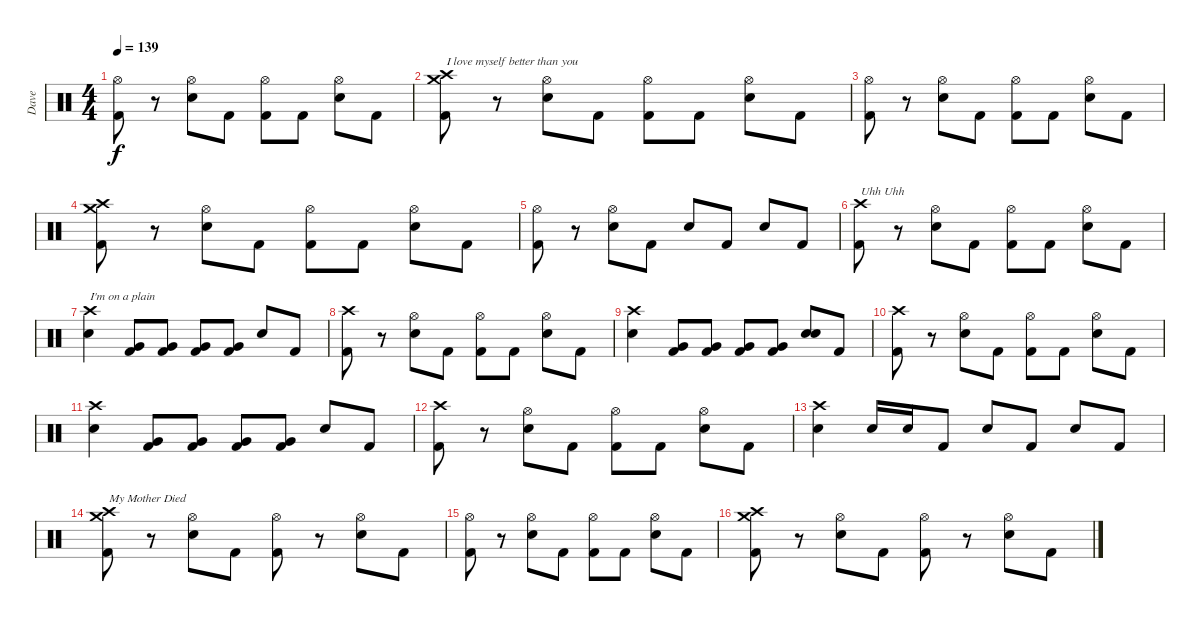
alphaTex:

\track ("Dave" "Dave") {instrument percussion}
\staff {score}
\articulation defaults
\ts (4 4)
\tempo 139
\clef neutral
\ks c
("Hi-Hat (open)" "Kick (hit) 2").8{dy f} r.8 ("Hi-Hat (open)" "Snare (hit) 2").8 "Kick (hit) 2".8 ("Hi-Hat (open)" "Kick (hit) 2").8 "Kick (hit) 2".8 ("Hi-Hat (open)" "Snare (hit) 2").8 "Kick (hit) 2".8 |
("Crash medium (hit)" "Crash high (hit)" "Kick (hit) 2").8{txt "I love myself better than you"} r.8 ("Hi-Hat (open)" "Snare (hit) 2").8 "Kick (hit) 2".8 ("Hi-Hat (open)" "Kick (hit) 2").8 "Kick (hit) 2".8 ("Hi-Hat (open)" "Snare (hit) 2").8 "Kick (hit) 2".8 |
("Hi-Hat (open)" "Kick (hit) 2").8 r.8 ("Hi-Hat (open)" "Snare (hit) 2").8 "Kick (hit) 2".8 ("Hi-Hat (open)" "Kick (hit) 2").8 "Kick (hit) 2".8 ("Hi-Hat (open)" "Snare (hit) 2").8 "Kick (hit) 2".8 |
("Crash medium (hit)" "Crash high (hit)" "Kick (hit) 2").8 r.8 ("Hi-Hat (open)" "Snare (hit) 2").8 "Kick (hit) 2".8 ("Hi-Hat (open)" "Kick (hit) 2").8 "Kick (hit) 2".8 ("Hi-Hat (open)" "Snare (hit) 2").8 "Kick (hit) 2".8 |
("Hi-Hat (open)" "Kick (hit) 2").8 r.8 ("Hi-Hat (open)" "Snare (hit) 2").8 "Kick (hit) 2".8 "Snare (hit) 2".8 "Kick (hit) 2".8 "Snare (hit) 2".8 "Kick (hit) 2".8 |
("Crash high (hit)" "Kick (hit) 2").8{txt "Uhh Uhh"} r.8 ("Hi-Hat (open)" "Snare (hit) 2").8 "Kick (hit) 2".8 ("Hi-Hat (open)" "Kick (hit) 2").8 "Kick (hit) 2".8 ("Hi-Hat (open)" "Snare (hit) 2").8 "Kick (hit) 2".8 |
("Crash high (hit)" "Snare (hit) 2").4{txt "I'm on a plain"} ("Very Low Tom (hit)" "Kick (hit) 2").8 ("Very Low Tom (hit)" "Kick (hit) 2").8 ("Very Low Tom (hit)" "Kick (hit) 2").8 ("Very Low Tom (hit)" "Kick (hit) 2").8 "Snare (hit) 2".8 "Kick (hit) 2".8 |
("Crash high (hit)" "Kick (hit) 2").8 r.8 ("Hi-Hat (open)" "Snare (hit) 2").8 "Kick (hit) 2".8 ("Hi-Hat (open)" "Kick (hit) 2").8 "Kick (hit) 2".8 ("Hi-Hat (open)" "Snare (hit) 2").8 "Kick (hit) 2".8 |
("Crash high (hit)" "Snare (hit) 2").4 ("Very Low Tom (hit)" "Kick (hit) 2").8 ("Very Low Tom (hit)" "Kick (hit) 2").8 ("Very Low Tom (hit)" "Kick (hit) 2").8 ("Very Low Tom (hit)" "Kick (hit) 2").8 ("Snare (hit) 2" "Snare (hit) 2").8 "Kick (hit) 2".8 |
("Crash high (hit)" "Kick (hit) 2").8 r.8 ("Hi-Hat (open)" "Snare (hit) 2").8 "Kick (hit) 2".8 ("Hi-Hat (open)" "Kick (hit) 2").8 "Kick (hit) 2".8 ("Hi-Hat (open)" "Snare (hit) 2").8 "Kick (hit) 2".8 |
("Crash high (hit)" "Snare (hit) 2").4 ("Very Low Tom (hit)" "Kick (hit) 2").8 ("Very Low Tom (hit)" "Kick (hit) 2").8 ("Very Low Tom (hit)" "Kick (hit) 2").8 ("Very Low Tom (hit)" "Kick (hit) 2").8 "Snare (hit) 2".8 "Kick (hit) 2".8 |
("Crash high (hit)" "Kick (hit) 2").8 r.8 ("Hi-Hat (open)" "Snare (hit) 2").8 "Kick (hit) 2".8 ("Hi-Hat (open)" "Kick (hit) 2").8 "Kick (hit) 2".8 ("Hi-Hat (open)" "Snare (hit) 2").8 "Kick (hit) 2".8 |
("Crash high (hit)" "Snare (hit) 2").4 "Snare (hit) 2".16 "Snare (hit) 2".16 "Kick (hit) 2".8 "Snare (hit) 2".8 "Kick (hit) 2".8 "Snare (hit) 2".8 "Kick (hit) 2".8 |
("Crash medium (hit)" "Crash high (hit)" "Kick (hit) 2").8{txt "My Mother Died"} r.8 ("Hi-Hat (open)" "Snare (hit) 2").8 "Kick (hit) 2".8 ("Hi-Hat (open)" "Kick (hit) 2").8 r.8 ("Hi-Hat (open)" "Snare (hit) 2").8 "Kick (hit) 2".8 |
("Hi-Hat (open)" "Kick (hit) 2").8 r.8 ("Hi-Hat (open)" "Snare (hit) 2").8 "Kick (hit) 2".8 ("Hi-Hat (open)" "Kick (hit) 2").8 "Kick (hit) 2".8 ("Hi-Hat (open)" "Snare (hit) 2").8 "Kick (hit) 2".8 |
("Crash medium (hit)" "Crash high (hit)" "Kick (hit) 2").8 r.8 ("Hi-Hat (open)" "Snare (hit) 2").8 "Kick (hit) 2".8 ("Hi-Hat (open)" "Kick (hit) 2").8 r.8 ("Hi-Hat (open)" "Snare (hit) 2").8 "Kick (hit) 2".8
